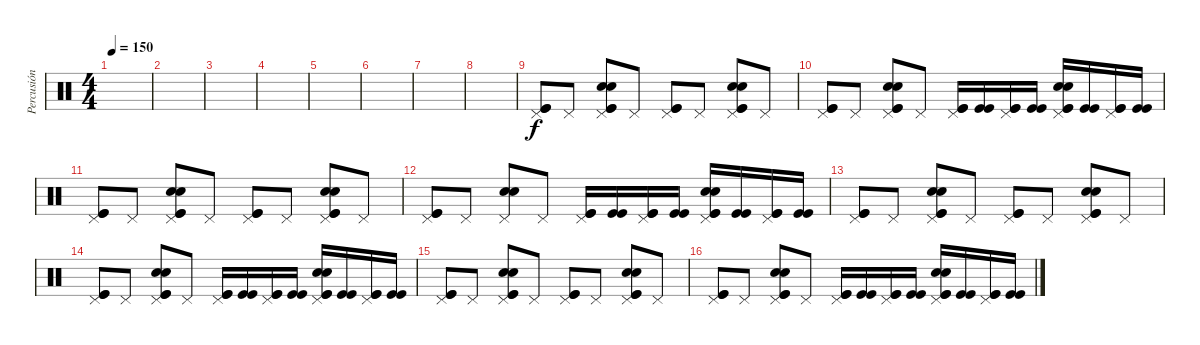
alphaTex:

\track ("Percusión" "Percusión") {instrument percussion}
\staff {score}
\articulation defaults
\ts (4 4)
\tempo 150
\clef neutral
\ks c
|
|
|
|
|
|
|
|
("Pedal Hi-Hat (hit)" "Kick (hit)" "Kick (hit)").8 "Pedal Hi-Hat (hit)".8 ("Pedal Hi-Hat (hit)" "Snare (hit) 2" "Snare (hit) 2" "Kick (hit)" "Kick (hit)").8 "Pedal Hi-Hat (hit)".8 ("Pedal Hi-Hat (hit)" "Kick (hit)" "Kick (hit)").8 "Pedal Hi-Hat (hit)".8 ("Pedal Hi-Hat (hit)" "Snare (hit) 2" "Snare (hit) 2" "Kick (hit)" "Kick (hit)").8 "Pedal Hi-Hat (hit)".8 |
("Pedal Hi-Hat (hit)" "Kick (hit)" "Kick (hit)").8 "Pedal Hi-Hat (hit)".8 ("Pedal Hi-Hat (hit)" "Snare (hit) 2" "Snare (hit) 2" "Kick (hit)" "Kick (hit)").8 "Pedal Hi-Hat (hit)".8 ("Pedal Hi-Hat (hit)" "Kick (hit)" "Kick (hit)").16 ("Kick (hit)" "Kick (hit)").16 ("Pedal Hi-Hat (hit)" "Kick (hit)" "Kick (hit)").16 ("Kick (hit)" "Kick (hit)").16 ("Pedal Hi-Hat (hit)" "Kick (hit)" "Kick (hit)" "Snare (hit) 2" "Snare (hit) 2").16 ("Kick (hit)" "Kick (hit)").16 ("Pedal Hi-Hat (hit)" "Kick (hit)" "Kick (hit)").16 ("Kick (hit)" "Kick (hit)").16 |
("Pedal Hi-Hat (hit)" "Kick (hit)" "Kick (hit)").8 "Pedal Hi-Hat (hit)".8 ("Pedal Hi-Hat (hit)" "Snare (hit) 2" "Snare (hit) 2" "Kick (hit)" "Kick (hit)").8 "Pedal Hi-Hat (hit)".8 ("Pedal Hi-Hat (hit)" "Kick (hit)" "Kick (hit)").8 "Pedal Hi-Hat (hit)".8 ("Pedal Hi-Hat (hit)" "Snare (hit) 2" "Snare (hit) 2" "Kick (hit)" "Kick (hit)").8 "Pedal Hi-Hat (hit)".8 |
("Pedal Hi-Hat (hit)" "Kick (hit)" "Kick (hit)").8 "Pedal Hi-Hat (hit)".8 ("Pedal Hi-Hat (hit)" "Snare (hit) 2" "Snare (hit) 2").8 "Pedal Hi-Hat (hit)".8 ("Pedal Hi-Hat (hit)" "Kick (hit)" "Kick (hit)").16 ("Kick (hit)" "Kick (hit)").16 ("Pedal Hi-Hat (hit)" "Kick (hit)" "Kick (hit)").16 ("Kick (hit)" "Kick (hit)").16 ("Pedal Hi-Hat (hit)" "Kick (hit)" "Kick (hit)" "Snare (hit) 2" "Snare (hit) 2").16 ("Kick (hit)" "Kick (hit)").16 ("Pedal Hi-Hat (hit)" "Kick (hit)" "Kick (hit)").16 ("Kick (hit)" "Kick (hit)").16 |
("Pedal Hi-Hat (hit)" "Kick (hit)" "Kick (hit)").8 "Pedal Hi-Hat (hit)".8 ("Pedal Hi-Hat (hit)" "Snare (hit) 2" "Snare (hit) 2" "Kick (hit)" "Kick (hit)").8 "Pedal Hi-Hat (hit)".8 ("Pedal Hi-Hat (hit)" "Kick (hit)" "Kick (hit)").8 "Pedal Hi-Hat (hit)".8 ("Pedal Hi-Hat (hit)" "Snare (hit) 2" "Snare (hit) 2" "Kick (hit)" "Kick (hit)").8 "Pedal Hi-Hat (hit)".8 |
("Pedal Hi-Hat (hit)" "Kick (hit)" "Kick (hit)").8 "Pedal Hi-Hat (hit)".8 ("Pedal Hi-Hat (hit)" "Snare (hit) 2" "Snare (hit) 2" "Kick (hit)" "Kick (hit)").8 "Pedal Hi-Hat (hit)".8 ("Pedal Hi-Hat (hit)" "Kick (hit)" "Kick (hit)").16 ("Kick (hit)" "Kick (hit)").16 ("Pedal Hi-Hat (hit)" "Kick (hit)" "Kick (hit)").16 ("Kick (hit)" "Kick (hit)").16 ("Pedal Hi-Hat (hit)" "Kick (hit)" "Kick (hit)" "Snare (hit) 2" "Snare (hit) 2").16 ("Kick (hit)" "Kick (hit)").16 ("Pedal Hi-Hat (hit)" "Kick (hit)" "Kick (hit)").16 ("Kick (hit)" "Kick (hit)").16 |
("Pedal Hi-Hat (hit)" "Kick (hit)" "Kick (hit)").8 "Pedal Hi-Hat (hit)".8 ("Pedal Hi-Hat (hit)" "Snare (hit) 2" "Snare (hit) 2" "Kick (hit)" "Kick (hit)").8 "Pedal Hi-Hat (hit)".8 ("Pedal Hi-Hat (hit)" "Kick (hit)" "Kick (hit)").8 "Pedal Hi-Hat (hit)".8 ("Pedal Hi-Hat (hit)" "Snare (hit) 2" "Snare (hit) 2" "Kick (hit)" "Kick (hit)").8 "Pedal Hi-Hat (hit)".8 |
("Pedal Hi-Hat (hit)" "Kick (hit)" "Kick (hit)").8 "Pedal Hi-Hat (hit)".8 ("Pedal Hi-Hat (hit)" "Snare (hit) 2" "Snare (hit) 2" "Kick (hit)" "Kick (hit)").8 "Pedal Hi-Hat (hit)".8 ("Pedal Hi-Hat (hit)" "Kick (hit)" "Kick (hit)").16 ("Kick (hit)" "Kick (hit)").16 ("Pedal Hi-Hat (hit)" "Kick (hit)" "Kick (hit)").16 ("Kick (hit)" "Kick (hit)").16 ("Pedal Hi-Hat (hit)" "Kick (hit)" "Kick (hit)" "Snare (hit) 2" "Snare (hit) 2").16 ("Kick (hit)" "Kick (hit)").16 ("Pedal Hi-Hat (hit)" "Kick (hit)" "Kick (hit)").16 ("Kick (hit)" "Kick (hit)").16
